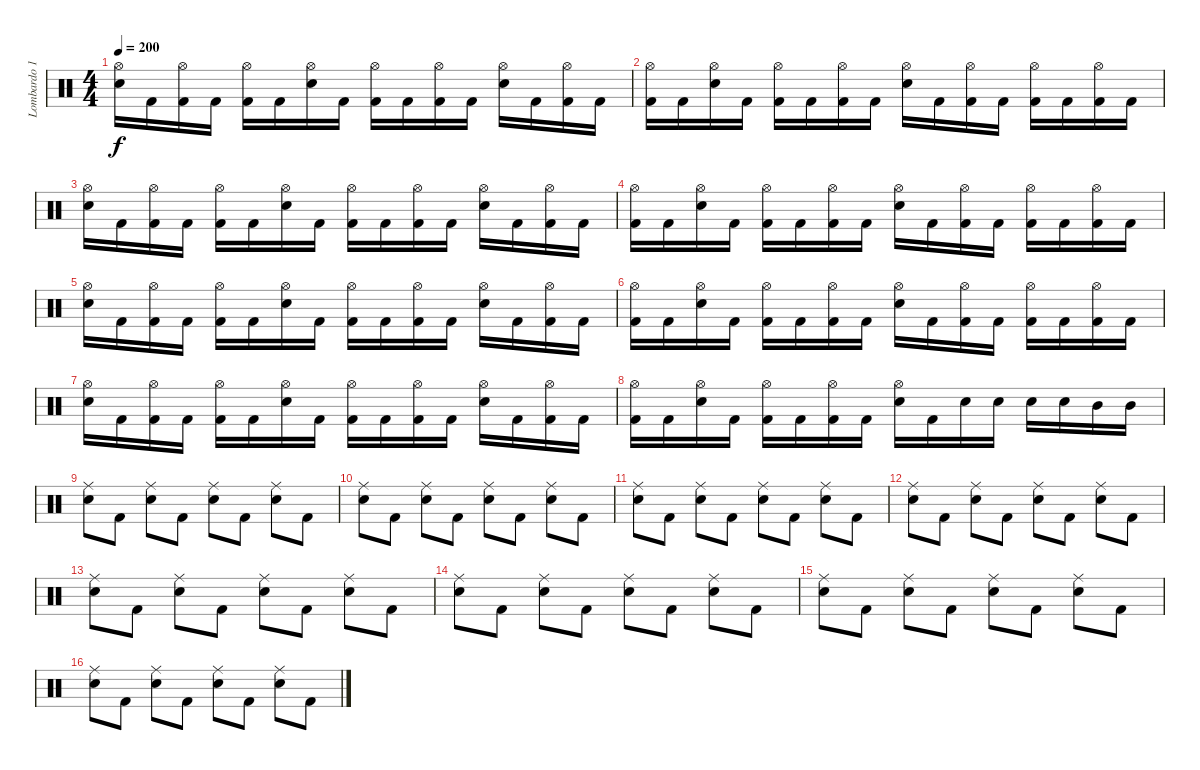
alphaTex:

\track ("Lombardo 1" "Lombardo 1") {instrument percussion}
\staff {score}
\articulation defaults
\ts (4 4)
\tempo 200
\clef neutral
\ks c
("Hi-Hat (open)" "Electric Snare (hit)").16{dy f} "Kick (hit) 2".16 ("Hi-Hat (open)" "Kick (hit) 2").16 "Kick (hit) 2".16 ("Hi-Hat (open)" "Kick (hit) 2").16 "Kick (hit) 2".16 ("Hi-Hat (open)" "Electric Snare (hit)").16 "Kick (hit) 2".16 ("Hi-Hat (open)" "Kick (hit) 2").16 "Kick (hit) 2".16 ("Hi-Hat (open)" "Kick (hit) 2").16 "Kick (hit) 2".16 ("Hi-Hat (open)" "Electric Snare (hit)").16 "Kick (hit) 2".16 ("Hi-Hat (open)" "Kick (hit) 2").16 "Kick (hit) 2".16 |
("Hi-Hat (open)" "Kick (hit) 2").16 "Kick (hit) 2".16 ("Hi-Hat (open)" "Electric Snare (hit)").16 "Kick (hit) 2".16 ("Hi-Hat (open)" "Kick (hit) 2").16 "Kick (hit) 2".16 ("Hi-Hat (open)" "Kick (hit) 2").16 "Kick (hit) 2".16 ("Hi-Hat (open)" "Electric Snare (hit)").16 "Kick (hit) 2".16 ("Hi-Hat (open)" "Kick (hit) 2").16 "Kick (hit) 2".16 ("Hi-Hat (open)" "Kick (hit) 2").16 "Kick (hit) 2".16 ("Hi-Hat (open)" "Kick (hit) 2").16 "Kick (hit) 2".16 |
("Hi-Hat (open)" "Electric Snare (hit)").16 "Kick (hit) 2".16 ("Hi-Hat (open)" "Kick (hit) 2").16 "Kick (hit) 2".16 ("Hi-Hat (open)" "Kick (hit) 2").16 "Kick (hit) 2".16 ("Hi-Hat (open)" "Electric Snare (hit)").16 "Kick (hit) 2".16 ("Hi-Hat (open)" "Kick (hit) 2").16 "Kick (hit) 2".16 ("Hi-Hat (open)" "Kick (hit) 2").16 "Kick (hit) 2".16 ("Hi-Hat (open)" "Electric Snare (hit)").16 "Kick (hit) 2".16 ("Hi-Hat (open)" "Kick (hit) 2").16 "Kick (hit) 2".16 |
("Hi-Hat (open)" "Kick (hit) 2").16 "Kick (hit) 2".16 ("Hi-Hat (open)" "Electric Snare (hit)").16 "Kick (hit) 2".16 ("Hi-Hat (open)" "Kick (hit) 2").16 "Kick (hit) 2".16 ("Hi-Hat (open)" "Kick (hit) 2").16 "Kick (hit) 2".16 ("Hi-Hat (open)" "Electric Snare (hit)").16 "Kick (hit) 2".16 ("Hi-Hat (open)" "Kick (hit) 2").16 "Kick (hit) 2".16 ("Hi-Hat (open)" "Kick (hit) 2").16 "Kick (hit) 2".16 ("Hi-Hat (open)" "Kick (hit) 2").16 "Kick (hit) 2".16 |
("Hi-Hat (open)" "Electric Snare (hit)").16 "Kick (hit) 2".16 ("Hi-Hat (open)" "Kick (hit) 2").16 "Kick (hit) 2".16 ("Hi-Hat (open)" "Kick (hit) 2").16 "Kick (hit) 2".16 ("Hi-Hat (open)" "Electric Snare (hit)").16 "Kick (hit) 2".16 ("Hi-Hat (open)" "Kick (hit) 2").16 "Kick (hit) 2".16 ("Hi-Hat (open)" "Kick (hit) 2").16 "Kick (hit) 2".16 ("Hi-Hat (open)" "Electric Snare (hit)").16 "Kick (hit) 2".16 ("Hi-Hat (open)" "Kick (hit) 2").16 "Kick (hit) 2".16 |
("Hi-Hat (open)" "Kick (hit) 2").16 "Kick (hit) 2".16 ("Hi-Hat (open)" "Electric Snare (hit)").16 "Kick (hit) 2".16 ("Hi-Hat (open)" "Kick (hit) 2").16 "Kick (hit) 2".16 ("Hi-Hat (open)" "Kick (hit) 2").16 "Kick (hit) 2".16 ("Hi-Hat (open)" "Electric Snare (hit)").16 "Kick (hit) 2".16 ("Hi-Hat (open)" "Kick (hit) 2").16 "Kick (hit) 2".16 ("Hi-Hat (open)" "Kick (hit) 2").16 "Kick (hit) 2".16 ("Hi-Hat (open)" "Kick (hit) 2").16 "Kick (hit) 2".16 |
("Hi-Hat (open)" "Electric Snare (hit)").16 "Kick (hit) 2".16 ("Hi-Hat (open)" "Kick (hit) 2").16 "Kick (hit) 2".16 ("Hi-Hat (open)" "Kick (hit) 2").16 "Kick (hit) 2".16 ("Hi-Hat (open)" "Electric Snare (hit)").16 "Kick (hit) 2".16 ("Hi-Hat (open)" "Kick (hit) 2").16 "Kick (hit) 2".16 ("Hi-Hat (open)" "Kick (hit) 2").16 "Kick (hit) 2".16 ("Hi-Hat (open)" "Electric Snare (hit)").16 "Kick (hit) 2".16 ("Hi-Hat (open)" "Kick (hit) 2").16 "Kick (hit) 2".16 |
("Hi-Hat (open)" "Kick (hit) 2").16 "Kick (hit) 2".16 ("Hi-Hat (open)" "Electric Snare (hit)").16 "Kick (hit) 2".16 ("Hi-Hat (open)" "Kick (hit) 2").16 "Kick (hit) 2".16 ("Hi-Hat (open)" "Kick (hit) 2").16 "Kick (hit) 2".16 ("Hi-Hat (open)" "Electric Snare (hit)").16 "Kick (hit) 2".16 "Electric Snare (hit)".16 "Electric Snare (hit)".16 "Electric Snare (hit)".16 "Electric Snare (hit)".16 "Mid Tom (hit)".16 "Mid Tom (hit)".16 |
("Ride (middle)" "Electric Snare (hit)").8 "Kick (hit) 2".8 ("Ride (middle)" "Electric Snare (hit)").8 "Kick (hit) 2".8 ("Ride (middle)" "Electric Snare (hit)").8 "Kick (hit) 2".8 ("Ride (middle)" "Electric Snare (hit)").8 "Kick (hit) 2".8 |
("Ride (middle)" "Electric Snare (hit)").8 "Kick (hit) 2".8 ("Ride (middle)" "Electric Snare (hit)").8 "Kick (hit) 2".8 ("Ride (middle)" "Electric Snare (hit)").8 "Kick (hit) 2".8 ("Ride (middle)" "Electric Snare (hit)").8 "Kick (hit) 2".8 |
("Ride (middle)" "Electric Snare (hit)").8 "Kick (hit) 2".8 ("Ride (middle)" "Electric Snare (hit)").8 "Kick (hit) 2".8 ("Ride (middle)" "Electric Snare (hit)").8 "Kick (hit) 2".8 ("Ride (middle)" "Electric Snare (hit)").8 "Kick (hit) 2".8 |
("Ride (middle)" "Electric Snare (hit)").8 "Kick (hit) 2".8 ("Ride (middle)" "Electric Snare (hit)").8 "Kick (hit) 2".8 ("Ride (middle)" "Electric Snare (hit)").8 "Kick (hit) 2".8 ("Ride (middle)" "Electric Snare (hit)").8 "Kick (hit) 2".8 |
("Ride (middle)" "Electric Snare (hit)").8 "Kick (hit) 2".8 ("Ride (middle)" "Electric Snare (hit)").8 "Kick (hit) 2".8 ("Ride (middle)" "Electric Snare (hit)").8 "Kick (hit) 2".8 ("Ride (middle)" "Electric Snare (hit)").8 "Kick (hit) 2".8 |
("Ride (middle)" "Electric Snare (hit)").8 "Kick (hit) 2".8 ("Ride (middle)" "Electric Snare (hit)").8 "Kick (hit) 2".8 ("Ride (middle)" "Electric Snare (hit)").8 "Kick (hit) 2".8 ("Ride (middle)" "Electric Snare (hit)").8 "Kick (hit) 2".8 |
("Ride (middle)" "Electric Snare (hit)").8 "Kick (hit) 2".8 ("Ride (middle)" "Electric Snare (hit)").8 "Kick (hit) 2".8 ("Ride (middle)" "Electric Snare (hit)").8 "Kick (hit) 2".8 ("Ride (middle)" "Electric Snare (hit)").8 "Kick (hit) 2".8 |
("Ride (middle)" "Electric Snare (hit)").8 "Kick (hit) 2".8 ("Ride (middle)" "Electric Snare (hit)").8 "Kick (hit) 2".8 ("Ride (middle)" "Electric Snare (hit)").8 "Kick (hit) 2".8 ("Ride (middle)" "Electric Snare (hit)").8 "Kick (hit) 2".8
